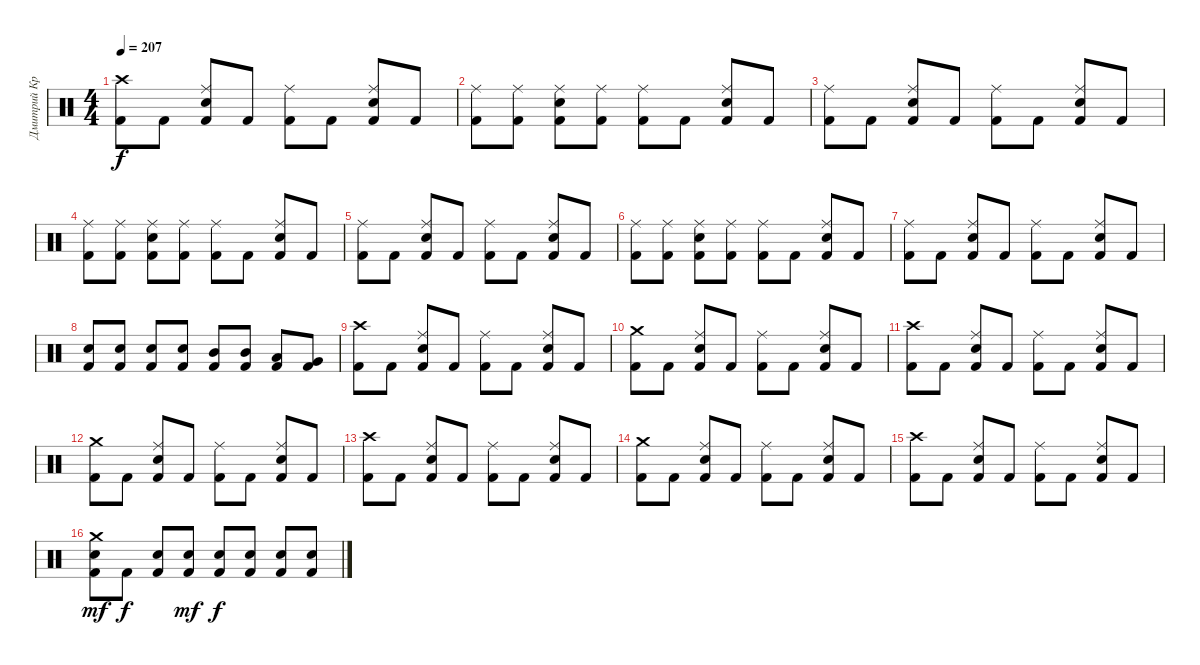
\track ("Дмитрий Кривенков" "Дмитрий Кр") {instrument percussion}
\staff {score}
\articulation defaults
\ts (4 4)
\tempo 207
\clef neutral
\ks c
("Crash high (hit)" "Kick (hit) 2").8{dy f} "Kick (hit) 2".8 ("Ride (middle)" "Electric Snare (hit)" "Kick (hit) 2").8 "Kick (hit) 2".8 ("Ride (middle)" "Kick (hit) 2").8 "Kick (hit) 2".8 ("Ride (middle)" "Electric Snare (hit)" "Kick (hit) 2").8 "Kick (hit) 2".8 |
("Ride (middle)" "Kick (hit) 2").8 ("Ride (middle)" "Kick (hit) 2").8 ("Ride (middle)" "Electric Snare (hit)" "Kick (hit) 2").8 ("Ride (middle)" "Kick (hit) 2").8 ("Ride (middle)" "Kick (hit) 2").8 "Kick (hit) 2".8 ("Ride (middle)" "Electric Snare (hit)" "Kick (hit) 2").8 "Kick (hit) 2".8 |
("Ride (middle)" "Kick (hit) 2").8 "Kick (hit) 2".8 ("Ride (middle)" "Electric Snare (hit)" "Kick (hit) 2").8 "Kick (hit) 2".8 ("Ride (middle)" "Kick (hit) 2").8 "Kick (hit) 2".8 ("Ride (middle)" "Electric Snare (hit)" "Kick (hit) 2").8 "Kick (hit) 2".8 |
("Ride (middle)" "Kick (hit) 2").8 ("Ride (middle)" "Kick (hit) 2").8 ("Ride (middle)" "Electric Snare (hit)" "Kick (hit) 2").8 ("Ride (middle)" "Kick (hit) 2").8 ("Ride (middle)" "Kick (hit) 2").8 "Kick (hit) 2".8 ("Ride (middle)" "Electric Snare (hit)" "Kick (hit) 2").8 "Kick (hit) 2".8 |
("Ride (middle)" "Kick (hit) 2").8 "Kick (hit) 2".8 ("Ride (middle)" "Electric Snare (hit)" "Kick (hit) 2").8 "Kick (hit) 2".8 ("Ride (middle)" "Kick (hit) 2").8 "Kick (hit) 2".8 ("Ride (middle)" "Electric Snare (hit)" "Kick (hit) 2").8 "Kick (hit) 2".8 |
("Ride (middle)" "Kick (hit) 2").8 ("Ride (middle)" "Kick (hit) 2").8 ("Ride (middle)" "Electric Snare (hit)" "Kick (hit) 2").8 ("Ride (middle)" "Kick (hit) 2").8 ("Ride (middle)" "Kick (hit) 2").8 "Kick (hit) 2".8 ("Ride (middle)" "Electric Snare (hit)" "Kick (hit) 2").8 "Kick (hit) 2".8 |
("Ride (middle)" "Kick (hit) 2").8 "Kick (hit) 2".8 ("Ride (middle)" "Electric Snare (hit)" "Kick (hit) 2").8 "Kick (hit) 2".8 ("Ride (middle)" "Kick (hit) 2").8 "Kick (hit) 2".8 ("Ride (middle)" "Electric Snare (hit)" "Kick (hit) 2").8 "Kick (hit) 2".8 |
("Electric Snare (hit)" "Kick (hit) 2").8 ("Electric Snare (hit)" "Kick (hit) 2").8 ("Electric Snare (hit)" "Kick (hit) 2").8 ("Electric Snare (hit)" "Kick (hit) 2").8 ("Mid Tom (hit)" "Kick (hit) 2").8 ("Mid Tom (hit)" "Kick (hit) 2").8 ("Low Tom (hit)" "Kick (hit) 2").8 ("Very Low Tom (hit)" "Kick (hit) 2").8 |
("Crash high (hit)" "Kick (hit) 2").8 "Kick (hit) 2".8 ("Ride (middle)" "Electric Snare (hit)" "Kick (hit) 2").8 "Kick (hit) 2".8 ("Ride (middle)" "Kick (hit) 2").8 "Kick (hit) 2".8 ("Ride (middle)" "Electric Snare (hit)" "Kick (hit) 2").8 "Kick (hit) 2".8 |
("Crash medium (hit)" "Kick (hit) 2").8 "Kick (hit) 2".8 ("Ride (middle)" "Electric Snare (hit)" "Kick (hit) 2").8 "Kick (hit) 2".8 ("Ride (middle)" "Kick (hit) 2").8 "Kick (hit) 2".8 ("Ride (middle)" "Electric Snare (hit)" "Kick (hit) 2").8 "Kick (hit) 2".8 |
("Crash high (hit)" "Kick (hit) 2").8 "Kick (hit) 2".8 ("Ride (middle)" "Electric Snare (hit)" "Kick (hit) 2").8 "Kick (hit) 2".8 ("Ride (middle)" "Kick (hit) 2").8 "Kick (hit) 2".8 ("Ride (middle)" "Electric Snare (hit)" "Kick (hit) 2").8 "Kick (hit) 2".8 |
("Crash medium (hit)" "Kick (hit) 2").8 "Kick (hit) 2".8 ("Ride (middle)" "Electric Snare (hit)" "Kick (hit) 2").8 "Kick (hit) 2".8 ("Ride (middle)" "Kick (hit) 2").8 "Kick (hit) 2".8 ("Ride (middle)" "Electric Snare (hit)" "Kick (hit) 2").8 "Kick (hit) 2".8 |
("Crash high (hit)" "Kick (hit) 2").8 "Kick (hit) 2".8 ("Ride (middle)" "Electric Snare (hit)" "Kick (hit) 2").8 "Kick (hit) 2".8 ("Ride (middle)" "Kick (hit) 2").8 "Kick (hit) 2".8 ("Ride (middle)" "Electric Snare (hit)" "Kick (hit) 2").8 "Kick (hit) 2".8 |
("Crash medium (hit)" "Kick (hit) 2").8 "Kick (hit) 2".8 ("Ride (middle)" "Electric Snare (hit)" "Kick (hit) 2").8 "Kick (hit) 2".8 ("Ride (middle)" "Kick (hit) 2").8 "Kick (hit) 2".8 ("Ride (middle)" "Electric Snare (hit)" "Kick (hit) 2").8 "Kick (hit) 2".8 |
("Crash high (hit)" "Kick (hit) 2").8 "Kick (hit) 2".8 ("Ride (middle)" "Electric Snare (hit)" "Kick (hit) 2").8 "Kick (hit) 2".8 ("Ride (middle)" "Kick (hit) 2").8 "Kick (hit) 2".8 ("Ride (middle)" "Electric Snare (hit)" "Kick (hit) 2").8 "Kick (hit) 2".8 |
("Crash medium (hit)" "Electric Snare (hit)" "Kick (hit) 2").8{dy mf} "Kick (hit) 2".8{dy f} ("Electric Snare (hit)" "Kick (hit) 2").8 ("Electric Snare (hit)" "Kick (hit) 2").8{dy mf} ("Electric Snare (hit)" "Kick (hit) 2").8{dy f} ("Electric Snare (hit)" "Kick (hit) 2").8 ("Electric Snare (hit)" "Kick (hit) 2").8 ("Electric Snare (hit)" "Kick (hit) 2").8
